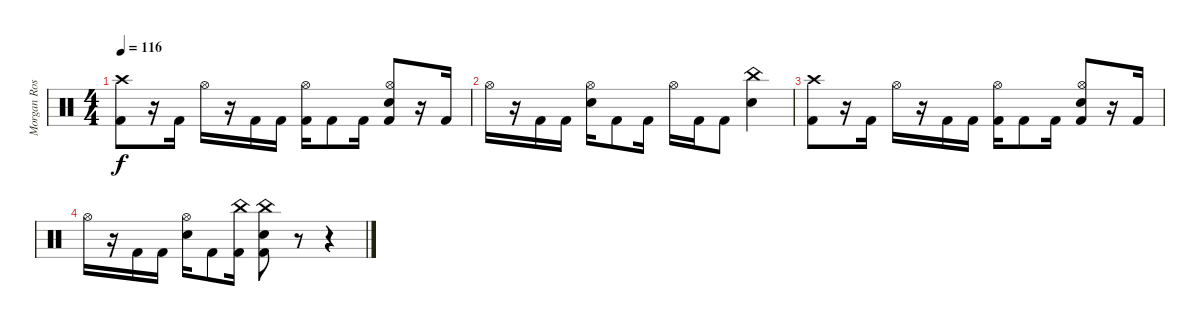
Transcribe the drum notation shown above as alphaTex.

\track ("Morgan Rose - Drums" "Morgan Ros") {instrument percussion}
\staff {score}
\articulation defaults
\ts (4 4)
\tempo 116
\clef neutral
\ks c
("Crash high (hit)" "Kick (hit) 2").8{dy f} r.16 "Kick (hit) 2".16 "Hi-Hat (open)".16 r.16 "Kick (hit) 2".16 "Kick (hit) 2".16 ("Hi-Hat (open)" "Kick (hit) 2").16 "Kick (hit) 2".8 "Kick (hit) 2".16 ("Hi-Hat (open)" "Electric Snare (hit)" "Kick (hit) 2").8 r.16 "Kick (hit) 2".16 |
"Hi-Hat (open)".16 r.16 "Kick (hit) 2".16 "Kick (hit) 2".16 ("Hi-Hat (open)" "Electric Snare (hit)").16 "Kick (hit) 2".8 "Kick (hit) 2".16 "Hi-Hat (open)".16 "Kick (hit) 2".16 "Kick (hit) 2".8 ("China (hit)" "Electric Snare (hit)").4 |
("Crash high (hit)" "Kick (hit) 2").8 r.16 "Kick (hit) 2".16 "Hi-Hat (open)".16 r.16 "Kick (hit) 2".16 "Kick (hit) 2".16 ("Hi-Hat (open)" "Kick (hit) 2").16 "Kick (hit) 2".8 "Kick (hit) 2".16 ("Hi-Hat (open)" "Electric Snare (hit)" "Kick (hit) 2").8 r.16 "Kick (hit) 2".16 |
"Hi-Hat (open)".16 r.16 "Kick (hit) 2".16 "Kick (hit) 2".16 ("Hi-Hat (open)" "Electric Snare (hit)").16 "Kick (hit) 2".8 ("China (hit)" "Kick (hit) 2").16 ("China (hit)" "Electric Snare (hit)" "Kick (hit) 2").8 r.8 r.4
